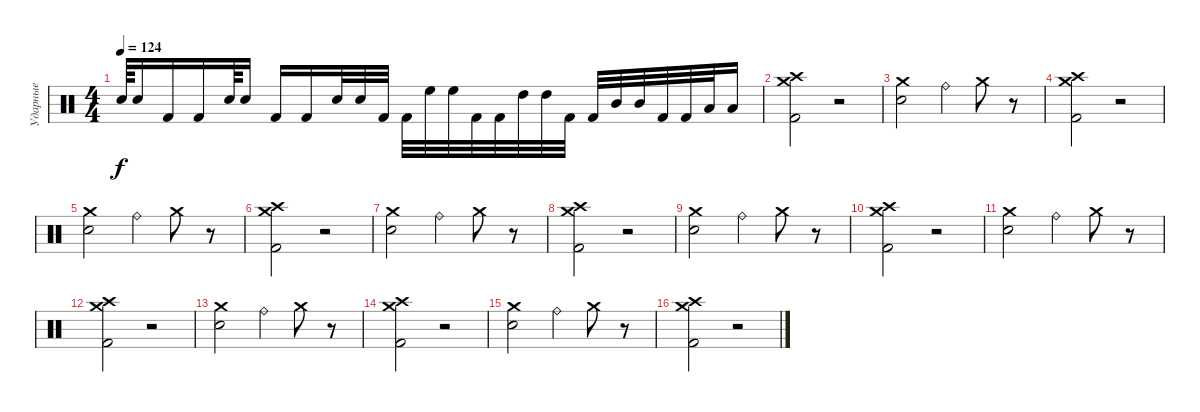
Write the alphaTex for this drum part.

\track ("Ударные" "Ударные") {instrument percussion}
\staff {score}
\articulation defaults
\ts (4 4)
\tempo 124
\clef neutral
\ks c "Electric Snare (hit)".64{dy f} "Electric Snare (hit)".16 "Kick (hit) 2".16 "Kick (hit) 2".16 "Electric Snare (hit)".64 "Electric Snare (hit)".16 "Kick (hit) 2".16 "Kick (hit) 2".16 "Electric Snare (hit)".32 "Electric Snare (hit)".32 "Kick (hit) 2".32 "Kick (hit) 2".32 "High Floor Tom (hit)".32 "High Floor Tom (hit)".32 "Kick (hit) 2".32 "Kick (hit) 2".32 "High Tom (hit)".32 "High Tom (hit)".32 "Kick (hit) 2".32 "Kick (hit) 2".32 "Mid Tom (hit)".32 "Mid Tom (hit)".32 "Kick (hit) 2".32 "Kick (hit) 2".32 "Low Tom (hit)".32 "Low Tom (hit)".16
|
("Crash medium (hit)" "Crash high (hit)" "Kick (hit) 2").2 r.2 |
("Crash medium (hit)" "Electric Snare (hit)").2 "Ride (bell)".4 "Crash medium (hit)".8 r.8 |
("Crash medium (hit)" "Crash high (hit)" "Kick (hit) 2").2 r.2 |
("Crash medium (hit)" "Electric Snare (hit)").2 "Ride (bell)".4 "Crash medium (hit)".8 r.8 |
("Crash medium (hit)" "Crash high (hit)" "Kick (hit) 2").2 r.2 |
("Crash medium (hit)" "Electric Snare (hit)").2 "Ride (bell)".4 "Crash medium (hit)".8 r.8 |
("Crash medium (hit)" "Crash high (hit)" "Kick (hit) 2").2 r.2 |
("Crash medium (hit)" "Electric Snare (hit)").2 "Ride (bell)".4 "Crash medium (hit)".8 r.8 |
("Crash medium (hit)" "Crash high (hit)" "Kick (hit) 2").2 r.2 |
("Crash medium (hit)" "Electric Snare (hit)").2 "Ride (bell)".4 "Crash medium (hit)".8 r.8 |
("Crash medium (hit)" "Crash high (hit)" "Kick (hit) 2").2 r.2 |
("Crash medium (hit)" "Electric Snare (hit)").2 "Ride (bell)".4 "Crash medium (hit)".8 r.8 |
("Crash medium (hit)" "Crash high (hit)" "Kick (hit) 2").2 r.2 |
("Crash medium (hit)" "Electric Snare (hit)").2 "Ride (bell)".4 "Crash medium (hit)".8 r.8 |
("Crash medium (hit)" "Crash high (hit)" "Kick (hit) 2").2 r.2
